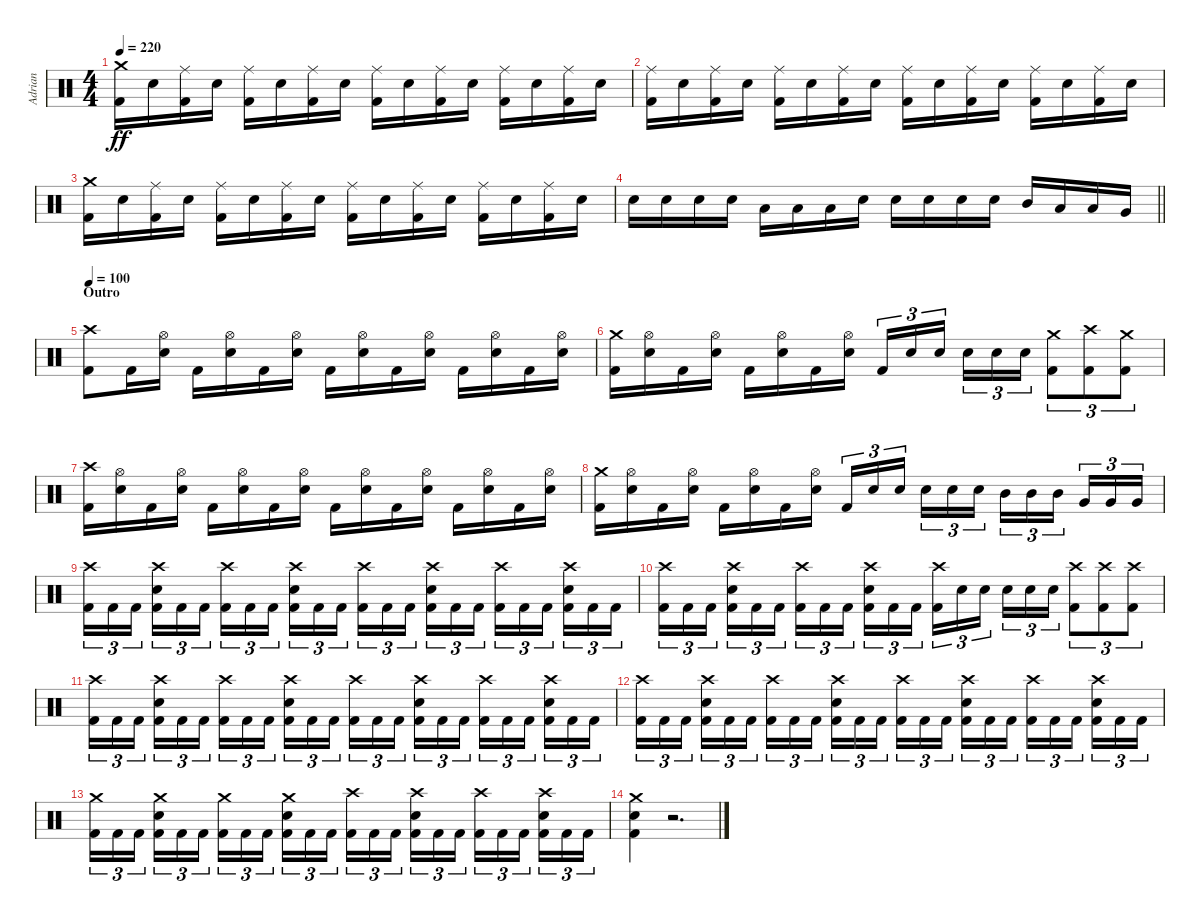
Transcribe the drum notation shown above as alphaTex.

\track ("Adrian" "Adrian") {instrument percussion}
\staff {score}
\articulation defaults
\ts (4 4)
\tempo 220
\clef neutral
\ks c
("Crash medium (hit)" "Kick (hit) 2").16{dy ff} "Electric Snare (hit)".16 ("Ride (middle)" "Kick (hit) 2").16 "Electric Snare (hit)".16 ("Ride (middle)" "Kick (hit) 2").16 "Electric Snare (hit)".16 ("Ride (middle)" "Kick (hit) 2").16 "Electric Snare (hit)".16 ("Ride (middle)" "Kick (hit) 2").16 "Electric Snare (hit)".16 ("Ride (middle)" "Kick (hit) 2").16 "Electric Snare (hit)".16 ("Ride (middle)" "Kick (hit) 2").16 "Electric Snare (hit)".16 ("Ride (middle)" "Kick (hit) 2").16 "Electric Snare (hit)".16 |
("Ride (middle)" "Kick (hit) 2").16 "Electric Snare (hit)".16 ("Ride (middle)" "Kick (hit) 2").16 "Electric Snare (hit)".16 ("Ride (middle)" "Kick (hit) 2").16 "Electric Snare (hit)".16 ("Ride (middle)" "Kick (hit) 2").16 "Electric Snare (hit)".16 ("Ride (middle)" "Kick (hit) 2").16 "Electric Snare (hit)".16 ("Ride (middle)" "Kick (hit) 2").16 "Electric Snare (hit)".16 ("Ride (middle)" "Kick (hit) 2").16 "Electric Snare (hit)".16 ("Ride (middle)" "Kick (hit) 2").16 "Electric Snare (hit)".16 |
("Crash medium (hit)" "Kick (hit) 2").16 "Electric Snare (hit)".16 ("Ride (middle)" "Kick (hit) 2").16 "Electric Snare (hit)".16 ("Ride (middle)" "Kick (hit) 2").16 "Electric Snare (hit)".16 ("Ride (middle)" "Kick (hit) 2").16 "Electric Snare (hit)".16 ("Ride (middle)" "Kick (hit) 2").16 "Electric Snare (hit)".16 ("Ride (middle)" "Kick (hit) 2").16 "Electric Snare (hit)".16 ("Ride (middle)" "Kick (hit) 2").16 "Electric Snare (hit)".16 ("Ride (middle)" "Kick (hit) 2").16 "Electric Snare (hit)".16 |
\barLineRight lightlight "Electric Snare (hit)".16 "Electric Snare (hit)".16 "Electric Snare (hit)".16 "Electric Snare (hit)".16 "Low Tom (hit)".16 "Low Tom (hit)".16 "Low Tom (hit)".16 "Electric Snare (hit)".16 "Electric Snare (hit)".16 "Electric Snare (hit)".16 "Electric Snare (hit)".16 "Electric Snare (hit)".16 "Mid Tom (hit)".16 "Low Tom (hit)".16 "Low Tom (hit)".16 "Very Low Tom (hit)".16
|
\section ("" "Outro")
\tempo 100
("Crash high (hit)" "Kick (hit) 2").8 "Kick (hit) 2".16 ("Hi-Hat (open)" "Electric Snare (hit)").16 "Kick (hit) 2".16 ("Hi-Hat (open)" "Electric Snare (hit)").16 "Kick (hit) 2".16 ("Hi-Hat (open)" "Electric Snare (hit)").16 "Kick (hit) 2".16 ("Hi-Hat (open)" "Electric Snare (hit)").16 "Kick (hit) 2".16 ("Hi-Hat (open)" "Electric Snare (hit)").16 "Kick (hit) 2".16 ("Hi-Hat (open)" "Electric Snare (hit)").16 "Kick (hit) 2".16 ("Hi-Hat (open)" "Electric Snare (hit)").16 |
("Crash medium (hit)" "Kick (hit) 2").16 ("Hi-Hat (open)" "Electric Snare (hit)").16 "Kick (hit) 2".16 ("Hi-Hat (open)" "Electric Snare (hit)").16 "Kick (hit) 2".16 ("Hi-Hat (open)" "Electric Snare (hit)").16 "Kick (hit) 2".16 ("Hi-Hat (open)" "Electric Snare (hit)").16 "Kick (hit) 2".16{tu (3 2)} "Electric Snare (hit)".16{tu (3 2)} "Electric Snare (hit)".16{tu (3 2) beam splitsecondary} "Electric Snare (hit)".16{tu (3 2)} "Electric Snare (hit)".16{tu (3 2)} "Electric Snare (hit)".16{tu (3 2)} ("Crash medium (hit)" "Kick (hit) 2").8{tu (3 2)} ("Crash high (hit)" "Kick (hit) 2").8{tu (3 2)} ("Crash medium (hit)" "Kick (hit) 2").8{tu (3 2)} |
("Crash high (hit)" "Kick (hit) 2").16 ("Hi-Hat (open)" "Electric Snare (hit)").16 "Kick (hit) 2".16 ("Hi-Hat (open)" "Electric Snare (hit)").16 "Kick (hit) 2".16 ("Hi-Hat (open)" "Electric Snare (hit)").16 "Kick (hit) 2".16 ("Hi-Hat (open)" "Electric Snare (hit)").16 "Kick (hit) 2".16 ("Hi-Hat (open)" "Electric Snare (hit)").16 "Kick (hit) 2".16 ("Hi-Hat (open)" "Electric Snare (hit)").16 "Kick (hit) 2".16 ("Hi-Hat (open)" "Electric Snare (hit)").16 "Kick (hit) 2".16 ("Hi-Hat (open)" "Electric Snare (hit)").16 |
("Crash medium (hit)" "Kick (hit) 2").16 ("Hi-Hat (open)" "Electric Snare (hit)").16 "Kick (hit) 2".16 ("Hi-Hat (open)" "Electric Snare (hit)").16 "Kick (hit) 2".16 ("Hi-Hat (open)" "Electric Snare (hit)").16 "Kick (hit) 2".16 ("Hi-Hat (open)" "Electric Snare (hit)").16 "Kick (hit) 2".16{tu (3 2)} "Electric Snare (hit)".16{tu (3 2)} "Electric Snare (hit)".16{tu (3 2) beam splitsecondary} "Electric Snare (hit)".16{tu (3 2)} "Electric Snare (hit)".16{tu (3 2)} "Electric Snare (hit)".16{tu (3 2)} "Mid Tom (hit)".16{tu (3 2)} "Mid Tom (hit)".16{tu (3 2)} "Mid Tom (hit)".16{tu (3 2) beam splitsecondary} "Very Low Tom (hit)".16{tu (3 2)} "Very Low Tom (hit)".16{tu (3 2)} "Very Low Tom (hit)".16{tu (3 2)} |
("Crash high (hit)" "Kick (hit) 2").16{tu (3 2)} "Kick (hit) 2".16{tu (3 2)} "Kick (hit) 2".16{tu (3 2) beam splitsecondary} ("Crash high (hit)" "Electric Snare (hit)" "Kick (hit) 2").16{tu (3 2)} "Kick (hit) 2".16{tu (3 2)} "Kick (hit) 2".16{tu (3 2)} ("Crash high (hit)" "Kick (hit) 2").16{tu (3 2)} "Kick (hit) 2".16{tu (3 2)} "Kick (hit) 2".16{tu (3 2) beam splitsecondary} ("Crash high (hit)" "Electric Snare (hit)" "Kick (hit) 2").16{tu (3 2)} "Kick (hit) 2".16{tu (3 2)} "Kick (hit) 2".16{tu (3 2)} ("Crash high (hit)" "Kick (hit) 2").16{tu (3 2)} "Kick (hit) 2".16{tu (3 2)} "Kick (hit) 2".16{tu (3 2) beam splitsecondary} ("Crash high (hit)" "Electric Snare (hit)" "Kick (hit) 2").16{tu (3 2)} "Kick (hit) 2".16{tu (3 2)} "Kick (hit) 2".16{tu (3 2)} ("Crash high (hit)" "Kick (hit) 2").16{tu (3 2)} "Kick (hit) 2".16{tu (3 2)} "Kick (hit) 2".16{tu (3 2) beam splitsecondary} ("Crash high (hit)" "Electric Snare (hit)" "Kick (hit) 2").16{tu (3 2)} "Kick (hit) 2".16{tu (3 2)} "Kick (hit) 2".16{tu (3 2)} |
("Crash high (hit)" "Kick (hit) 2").16{tu (3 2)} "Kick (hit) 2".16{tu (3 2)} "Kick (hit) 2".16{tu (3 2) beam splitsecondary} ("Crash high (hit)" "Electric Snare (hit)" "Kick (hit) 2").16{tu (3 2)} "Kick (hit) 2".16{tu (3 2)} "Kick (hit) 2".16{tu (3 2)} ("Crash high (hit)" "Kick (hit) 2").16{tu (3 2)} "Kick (hit) 2".16{tu (3 2)} "Kick (hit) 2".16{tu (3 2) beam splitsecondary} ("Crash high (hit)" "Electric Snare (hit)" "Kick (hit) 2").16{tu (3 2)} "Kick (hit) 2".16{tu (3 2)} "Kick (hit) 2".16{tu (3 2)} ("Crash high (hit)" "Kick (hit) 2").16{tu (3 2)} "Electric Snare (hit)".16{tu (3 2)} "Electric Snare (hit)".16{tu (3 2) beam splitsecondary} "Electric Snare (hit)".16{tu (3 2)} "Electric Snare (hit)".16{tu (3 2)} "Electric Snare (hit)".16{tu (3 2)} ("Crash high (hit)" "Kick (hit) 2").8{tu (3 2)} ("Crash high (hit)" "Kick (hit) 2").8{tu (3 2)} ("Crash high (hit)" "Kick (hit) 2").8{tu (3 2)} |
("Crash high (hit)" "Kick (hit) 2").16{tu (3 2)} "Kick (hit) 2".16{tu (3 2)} "Kick (hit) 2".16{tu (3 2) beam splitsecondary} ("Crash high (hit)" "Electric Snare (hit)" "Kick (hit) 2").16{tu (3 2)} "Kick (hit) 2".16{tu (3 2)} "Kick (hit) 2".16{tu (3 2)} ("Crash high (hit)" "Kick (hit) 2").16{tu (3 2)} "Kick (hit) 2".16{tu (3 2)} "Kick (hit) 2".16{tu (3 2) beam splitsecondary} ("Crash high (hit)" "Electric Snare (hit)" "Kick (hit) 2").16{tu (3 2)} "Kick (hit) 2".16{tu (3 2)} "Kick (hit) 2".16{tu (3 2)} ("Crash high (hit)" "Kick (hit) 2").16{tu (3 2)} "Kick (hit) 2".16{tu (3 2)} "Kick (hit) 2".16{tu (3 2) beam splitsecondary} ("Crash high (hit)" "Electric Snare (hit)" "Kick (hit) 2").16{tu (3 2)} "Kick (hit) 2".16{tu (3 2)} "Kick (hit) 2".16{tu (3 2)} ("Crash high (hit)" "Kick (hit) 2").16{tu (3 2)} "Kick (hit) 2".16{tu (3 2)} "Kick (hit) 2".16{tu (3 2) beam splitsecondary} ("Crash high (hit)" "Electric Snare (hit)" "Kick (hit) 2").16{tu (3 2)} "Kick (hit) 2".16{tu (3 2)} "Kick (hit) 2".16{tu (3 2)} |
("Crash high (hit)" "Kick (hit) 2").16{tu (3 2)} "Kick (hit) 2".16{tu (3 2)} "Kick (hit) 2".16{tu (3 2) beam splitsecondary} ("Crash high (hit)" "Electric Snare (hit)" "Kick (hit) 2").16{tu (3 2)} "Kick (hit) 2".16{tu (3 2)} "Kick (hit) 2".16{tu (3 2)} ("Crash high (hit)" "Kick (hit) 2").16{tu (3 2)} "Kick (hit) 2".16{tu (3 2)} "Kick (hit) 2".16{tu (3 2) beam splitsecondary} ("Crash high (hit)" "Electric Snare (hit)" "Kick (hit) 2").16{tu (3 2)} "Kick (hit) 2".16{tu (3 2)} "Kick (hit) 2".16{tu (3 2)} ("Crash high (hit)" "Kick (hit) 2").16{tu (3 2)} "Kick (hit) 2".16{tu (3 2)} "Kick (hit) 2".16{tu (3 2) beam splitsecondary} ("Crash high (hit)" "Electric Snare (hit)" "Kick (hit) 2").16{tu (3 2)} "Kick (hit) 2".16{tu (3 2)} "Kick (hit) 2".16{tu (3 2)} ("Crash high (hit)" "Kick (hit) 2").16{tu (3 2)} "Kick (hit) 2".16{tu (3 2)} "Kick (hit) 2".16{tu (3 2) beam splitsecondary} ("Crash high (hit)" "Electric Snare (hit)" "Kick (hit) 2").16{tu (3 2)} "Kick (hit) 2".16{tu (3 2)} "Kick (hit) 2".16{tu (3 2)} |
("Crash medium (hit)" "Kick (hit) 2").16{tu (3 2)} "Kick (hit) 2".16{tu (3 2)} "Kick (hit) 2".16{tu (3 2) beam splitsecondary} ("Crash medium (hit)" "Electric Snare (hit)" "Kick (hit) 2").16{tu (3 2)} "Kick (hit) 2".16{tu (3 2)} "Kick (hit) 2".16{tu (3 2)} ("Crash medium (hit)" "Kick (hit) 2").16{tu (3 2)} "Kick (hit) 2".16{tu (3 2)} "Kick (hit) 2".16{tu (3 2) beam splitsecondary} ("Crash medium (hit)" "Electric Snare (hit)" "Kick (hit) 2").16{tu (3 2)} "Kick (hit) 2".16{tu (3 2)} "Kick (hit) 2".16{tu (3 2)} ("Crash high (hit)" "Kick (hit) 2").16{tu (3 2)} "Kick (hit) 2".16{tu (3 2)} "Kick (hit) 2".16{tu (3 2) beam splitsecondary} ("Crash high (hit)" "Electric Snare (hit)" "Kick (hit) 2").16{tu (3 2)} "Kick (hit) 2".16{tu (3 2)} "Kick (hit) 2".16{tu (3 2)} ("Crash high (hit)" "Kick (hit) 2").16{tu (3 2)} "Kick (hit) 2".16{tu (3 2)} "Kick (hit) 2".16{tu (3 2) beam splitsecondary} ("Crash high (hit)" "Electric Snare (hit)" "Kick (hit) 2").16{tu (3 2)} "Kick (hit) 2".16{tu (3 2)} "Kick (hit) 2".16{tu (3 2)} |
("Crash medium (hit)" "Electric Snare (hit)" "Kick (hit) 2").4 r.2{d}
